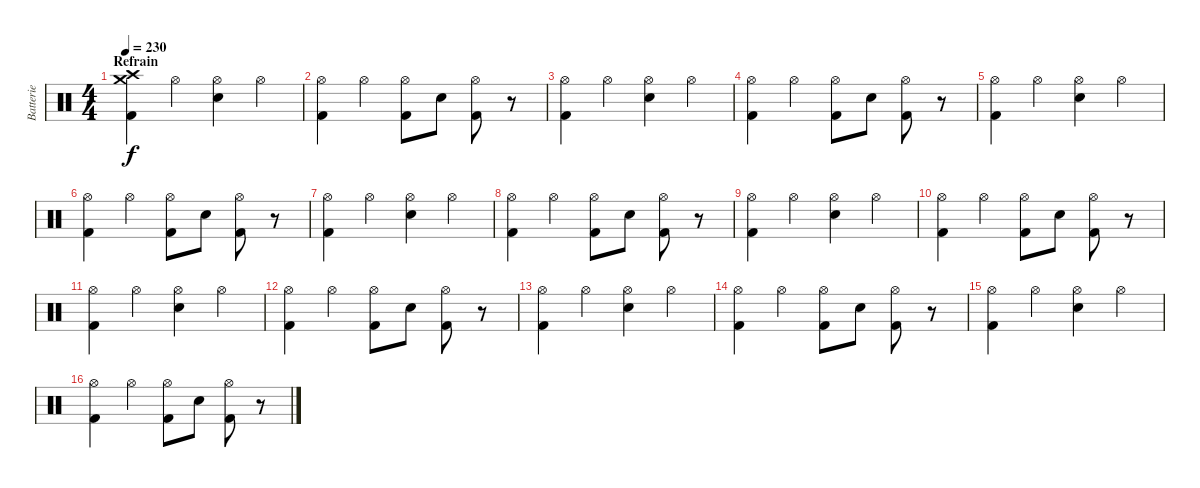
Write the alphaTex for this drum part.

\track ("Batterie" "Batterie") {instrument percussion}
\staff {score}
\articulation defaults
\ts (4 4)
\section ("" "Refrain")
\tempo 230
\clef neutral
\ks c
("Crash high (hit)" "Crash medium (hit)" "Kick (hit) 2").4{dy f} "Hi-Hat (open)".4 ("Hi-Hat (open)" "Electric Snare (hit)").4 "Hi-Hat (open)".4 |
("Hi-Hat (open)" "Kick (hit) 2").4 "Hi-Hat (open)".4 ("Hi-Hat (open)" "Kick (hit) 2").8 "Electric Snare (hit)".8 ("Hi-Hat (open)" "Kick (hit) 2").8 r.8 |
("Hi-Hat (open)" "Kick (hit) 2").4 "Hi-Hat (open)".4 ("Hi-Hat (open)" "Electric Snare (hit)").4 "Hi-Hat (open)".4 |
("Hi-Hat (open)" "Kick (hit) 2").4 "Hi-Hat (open)".4 ("Hi-Hat (open)" "Kick (hit) 2").8 "Electric Snare (hit)".8 ("Hi-Hat (open)" "Kick (hit) 2").8 r.8 |
("Hi-Hat (open)" "Kick (hit) 2").4 "Hi-Hat (open)".4 ("Hi-Hat (open)" "Electric Snare (hit)").4 "Hi-Hat (open)".4 |
("Hi-Hat (open)" "Kick (hit) 2").4 "Hi-Hat (open)".4 ("Hi-Hat (open)" "Kick (hit) 2").8 "Electric Snare (hit)".8 ("Hi-Hat (open)" "Kick (hit) 2").8 r.8 |
("Hi-Hat (open)" "Kick (hit) 2").4 "Hi-Hat (open)".4 ("Hi-Hat (open)" "Electric Snare (hit)").4 "Hi-Hat (open)".4 |
("Hi-Hat (open)" "Kick (hit) 2").4 "Hi-Hat (open)".4 ("Hi-Hat (open)" "Kick (hit) 2").8 "Electric Snare (hit)".8 ("Hi-Hat (open)" "Kick (hit) 2").8 r.8 |
("Hi-Hat (open)" "Kick (hit) 2").4 "Hi-Hat (open)".4 ("Hi-Hat (open)" "Electric Snare (hit)").4 "Hi-Hat (open)".4 |
("Hi-Hat (open)" "Kick (hit) 2").4 "Hi-Hat (open)".4 ("Hi-Hat (open)" "Kick (hit) 2").8 "Electric Snare (hit)".8 ("Hi-Hat (open)" "Kick (hit) 2").8 r.8 |
("Hi-Hat (open)" "Kick (hit) 2").4 "Hi-Hat (open)".4 ("Hi-Hat (open)" "Electric Snare (hit)").4 "Hi-Hat (open)".4 |
("Hi-Hat (open)" "Kick (hit) 2").4 "Hi-Hat (open)".4 ("Hi-Hat (open)" "Kick (hit) 2").8 "Electric Snare (hit)".8 ("Hi-Hat (open)" "Kick (hit) 2").8 r.8 |
("Hi-Hat (open)" "Kick (hit) 2").4 "Hi-Hat (open)".4 ("Hi-Hat (open)" "Electric Snare (hit)").4 "Hi-Hat (open)".4 |
("Hi-Hat (open)" "Kick (hit) 2").4 "Hi-Hat (open)".4 ("Hi-Hat (open)" "Kick (hit) 2").8 "Electric Snare (hit)".8 ("Hi-Hat (open)" "Kick (hit) 2").8 r.8 |
("Hi-Hat (open)" "Kick (hit) 2").4 "Hi-Hat (open)".4 ("Hi-Hat (open)" "Electric Snare (hit)").4 "Hi-Hat (open)".4 |
("Hi-Hat (open)" "Kick (hit) 2").4 "Hi-Hat (open)".4 ("Hi-Hat (open)" "Kick (hit) 2").8 "Electric Snare (hit)".8 ("Hi-Hat (open)" "Kick (hit) 2").8 r.8
